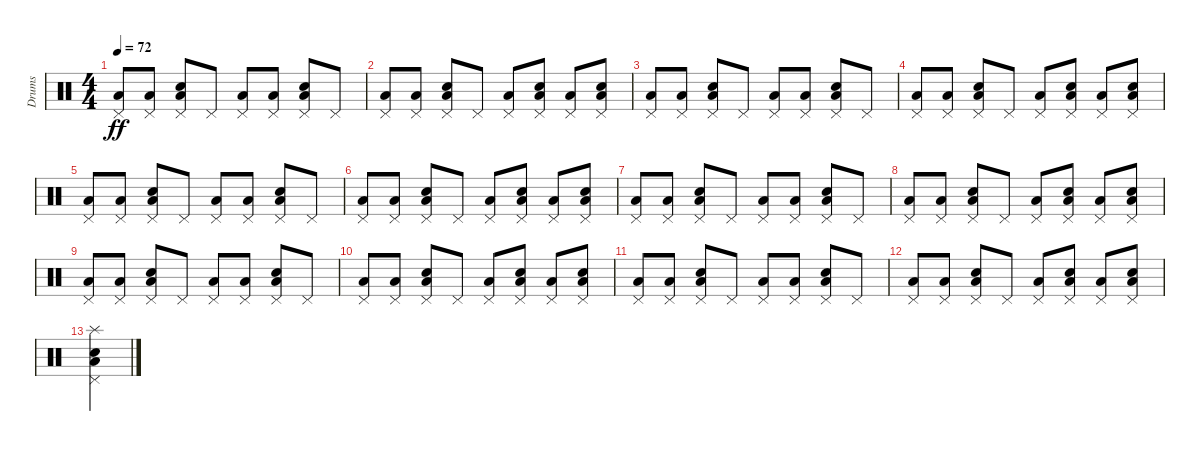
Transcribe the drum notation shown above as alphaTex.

\track ("Drums" "Drums") {instrument percussion}
\staff {score}
\articulation defaults
\ts (4 4)
\tempo 72
\clef neutral
\ks c
("Low Floor Tom (hit)" "Pedal Hi-Hat (hit)").8{dy ff} ("Low Floor Tom (hit)" "Pedal Hi-Hat (hit)").8 ("Electric Snare (hit)" "Low Floor Tom (hit)" "Pedal Hi-Hat (hit)").8 "Pedal Hi-Hat (hit)".8 ("Low Floor Tom (hit)" "Pedal Hi-Hat (hit)").8 ("Low Floor Tom (hit)" "Pedal Hi-Hat (hit)").8 ("Electric Snare (hit)" "Low Floor Tom (hit)" "Pedal Hi-Hat (hit)").8 "Pedal Hi-Hat (hit)".8 |
("Low Floor Tom (hit)" "Pedal Hi-Hat (hit)").8 ("Low Floor Tom (hit)" "Pedal Hi-Hat (hit)").8 ("Electric Snare (hit)" "Low Floor Tom (hit)" "Pedal Hi-Hat (hit)").8 "Pedal Hi-Hat (hit)".8 ("Low Floor Tom (hit)" "Pedal Hi-Hat (hit)").8 ("Electric Snare (hit)" "Low Floor Tom (hit)" "Pedal Hi-Hat (hit)").8 ("Low Floor Tom (hit)" "Pedal Hi-Hat (hit)").8 ("Electric Snare (hit)" "Low Floor Tom (hit)" "Pedal Hi-Hat (hit)").8 |
("Low Floor Tom (hit)" "Pedal Hi-Hat (hit)").8 ("Low Floor Tom (hit)" "Pedal Hi-Hat (hit)").8 ("Electric Snare (hit)" "Low Floor Tom (hit)" "Pedal Hi-Hat (hit)").8 "Pedal Hi-Hat (hit)".8 ("Low Floor Tom (hit)" "Pedal Hi-Hat (hit)").8 ("Low Floor Tom (hit)" "Pedal Hi-Hat (hit)").8 ("Electric Snare (hit)" "Low Floor Tom (hit)" "Pedal Hi-Hat (hit)").8 "Pedal Hi-Hat (hit)".8 |
("Low Floor Tom (hit)" "Pedal Hi-Hat (hit)").8 ("Low Floor Tom (hit)" "Pedal Hi-Hat (hit)").8 ("Electric Snare (hit)" "Low Floor Tom (hit)" "Pedal Hi-Hat (hit)").8 "Pedal Hi-Hat (hit)".8 ("Low Floor Tom (hit)" "Pedal Hi-Hat (hit)").8 ("Electric Snare (hit)" "Low Floor Tom (hit)" "Pedal Hi-Hat (hit)").8 ("Low Floor Tom (hit)" "Pedal Hi-Hat (hit)").8 ("Electric Snare (hit)" "Low Floor Tom (hit)" "Pedal Hi-Hat (hit)").8 |
("Low Floor Tom (hit)" "Pedal Hi-Hat (hit)").8 ("Low Floor Tom (hit)" "Pedal Hi-Hat (hit)").8 ("Electric Snare (hit)" "Low Floor Tom (hit)" "Pedal Hi-Hat (hit)").8 "Pedal Hi-Hat (hit)".8 ("Low Floor Tom (hit)" "Pedal Hi-Hat (hit)").8 ("Low Floor Tom (hit)" "Pedal Hi-Hat (hit)").8 ("Electric Snare (hit)" "Low Floor Tom (hit)" "Pedal Hi-Hat (hit)").8 "Pedal Hi-Hat (hit)".8 |
("Low Floor Tom (hit)" "Pedal Hi-Hat (hit)").8 ("Low Floor Tom (hit)" "Pedal Hi-Hat (hit)").8 ("Electric Snare (hit)" "Low Floor Tom (hit)" "Pedal Hi-Hat (hit)").8 "Pedal Hi-Hat (hit)".8 ("Low Floor Tom (hit)" "Pedal Hi-Hat (hit)").8 ("Electric Snare (hit)" "Low Floor Tom (hit)" "Pedal Hi-Hat (hit)").8 ("Low Floor Tom (hit)" "Pedal Hi-Hat (hit)").8 ("Electric Snare (hit)" "Low Floor Tom (hit)" "Pedal Hi-Hat (hit)").8 |
("Low Floor Tom (hit)" "Pedal Hi-Hat (hit)").8 ("Low Floor Tom (hit)" "Pedal Hi-Hat (hit)").8 ("Electric Snare (hit)" "Low Floor Tom (hit)" "Pedal Hi-Hat (hit)").8 "Pedal Hi-Hat (hit)".8 ("Low Floor Tom (hit)" "Pedal Hi-Hat (hit)").8 ("Low Floor Tom (hit)" "Pedal Hi-Hat (hit)").8 ("Electric Snare (hit)" "Low Floor Tom (hit)" "Pedal Hi-Hat (hit)").8 "Pedal Hi-Hat (hit)".8 |
("Low Floor Tom (hit)" "Pedal Hi-Hat (hit)").8 ("Low Floor Tom (hit)" "Pedal Hi-Hat (hit)").8 ("Electric Snare (hit)" "Low Floor Tom (hit)" "Pedal Hi-Hat (hit)").8 "Pedal Hi-Hat (hit)".8 ("Low Floor Tom (hit)" "Pedal Hi-Hat (hit)").8 ("Electric Snare (hit)" "Low Floor Tom (hit)" "Pedal Hi-Hat (hit)").8 ("Low Floor Tom (hit)" "Pedal Hi-Hat (hit)").8 ("Electric Snare (hit)" "Low Floor Tom (hit)" "Pedal Hi-Hat (hit)").8 |
("Low Floor Tom (hit)" "Pedal Hi-Hat (hit)").8 ("Low Floor Tom (hit)" "Pedal Hi-Hat (hit)").8 ("Electric Snare (hit)" "Low Floor Tom (hit)" "Pedal Hi-Hat (hit)").8 "Pedal Hi-Hat (hit)".8 ("Low Floor Tom (hit)" "Pedal Hi-Hat (hit)").8 ("Low Floor Tom (hit)" "Pedal Hi-Hat (hit)").8 ("Electric Snare (hit)" "Low Floor Tom (hit)" "Pedal Hi-Hat (hit)").8 "Pedal Hi-Hat (hit)".8 |
("Low Floor Tom (hit)" "Pedal Hi-Hat (hit)").8 ("Low Floor Tom (hit)" "Pedal Hi-Hat (hit)").8 ("Electric Snare (hit)" "Low Floor Tom (hit)" "Pedal Hi-Hat (hit)").8 "Pedal Hi-Hat (hit)".8 ("Low Floor Tom (hit)" "Pedal Hi-Hat (hit)").8 ("Electric Snare (hit)" "Low Floor Tom (hit)" "Pedal Hi-Hat (hit)").8 ("Low Floor Tom (hit)" "Pedal Hi-Hat (hit)").8 ("Electric Snare (hit)" "Low Floor Tom (hit)" "Pedal Hi-Hat (hit)").8 |
("Low Floor Tom (hit)" "Pedal Hi-Hat (hit)").8 ("Low Floor Tom (hit)" "Pedal Hi-Hat (hit)").8 ("Electric Snare (hit)" "Low Floor Tom (hit)" "Pedal Hi-Hat (hit)").8 "Pedal Hi-Hat (hit)".8 ("Low Floor Tom (hit)" "Pedal Hi-Hat (hit)").8 ("Low Floor Tom (hit)" "Pedal Hi-Hat (hit)").8 ("Electric Snare (hit)" "Low Floor Tom (hit)" "Pedal Hi-Hat (hit)").8 "Pedal Hi-Hat (hit)".8 |
("Low Floor Tom (hit)" "Pedal Hi-Hat (hit)").8 ("Low Floor Tom (hit)" "Pedal Hi-Hat (hit)").8 ("Electric Snare (hit)" "Low Floor Tom (hit)" "Pedal Hi-Hat (hit)").8 "Pedal Hi-Hat (hit)".8 ("Low Floor Tom (hit)" "Pedal Hi-Hat (hit)").8 ("Electric Snare (hit)" "Low Floor Tom (hit)" "Pedal Hi-Hat (hit)").8 ("Low Floor Tom (hit)" "Pedal Hi-Hat (hit)").8 ("Electric Snare (hit)" "Low Floor Tom (hit)" "Pedal Hi-Hat (hit)").8 |
("Electric Snare (hit)" "Low Floor Tom (hit)" "Pedal Hi-Hat (hit)" "Splash (hit)").4
